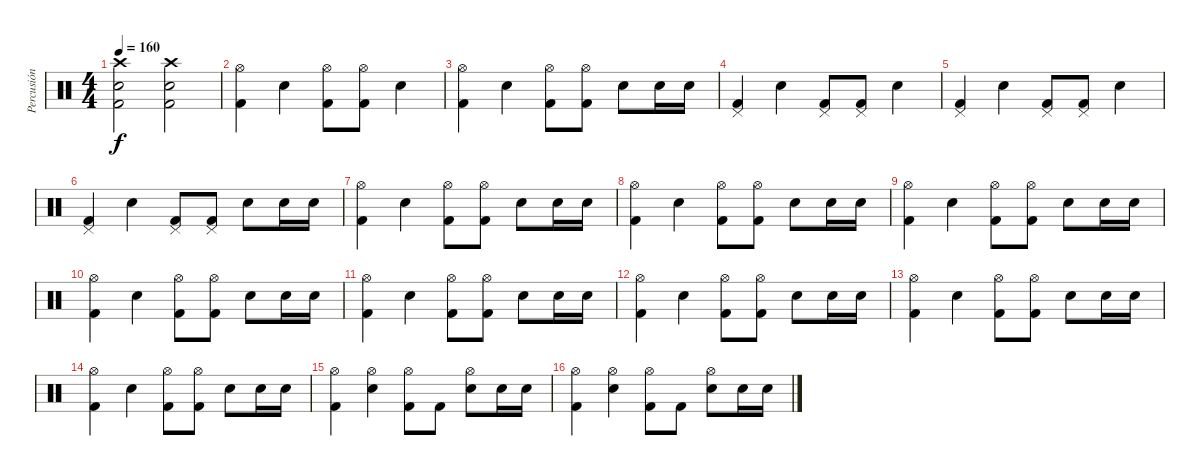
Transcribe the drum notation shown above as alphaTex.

\track ("Percusión" "Percusión") {instrument percussion}
\staff {score}
\articulation defaults
\ts (4 4)
\tempo 160
\clef neutral
\ks c
("Crash high (hit)" "Snare (hit) 2" "Kick (hit) 2").2{dy f} ("Crash high (hit)" "Snare (hit) 2" "Kick (hit) 2").2 |
("Hi-Hat (open)" "Kick (hit) 2").4 "Electric Snare (hit)".4 ("Hi-Hat (open)" "Kick (hit) 2").8 ("Hi-Hat (open)" "Kick (hit) 2").8 "Electric Snare (hit)".4 |
("Hi-Hat (open)" "Kick (hit) 2").4 "Electric Snare (hit)".4 ("Hi-Hat (open)" "Kick (hit) 2").8 ("Hi-Hat (open)" "Kick (hit) 2").8 "Electric Snare (hit)".8 "Electric Snare (hit)".16 "Electric Snare (hit)".16 |
("Pedal Hi-Hat (hit)" "Kick (hit) 2").4 "Electric Snare (hit)".4 ("Pedal Hi-Hat (hit)" "Kick (hit) 2").8 ("Pedal Hi-Hat (hit)" "Kick (hit) 2").8 "Electric Snare (hit)".4 |
("Pedal Hi-Hat (hit)" "Kick (hit) 2").4 "Electric Snare (hit)".4 ("Pedal Hi-Hat (hit)" "Kick (hit) 2").8 ("Pedal Hi-Hat (hit)" "Kick (hit) 2").8 "Electric Snare (hit)".4 |
("Pedal Hi-Hat (hit)" "Kick (hit) 2").4 "Electric Snare (hit)".4 ("Pedal Hi-Hat (hit)" "Kick (hit) 2").8 ("Pedal Hi-Hat (hit)" "Kick (hit) 2").8 "Electric Snare (hit)".8 "Electric Snare (hit)".16 "Electric Snare (hit)".16 |
("Hi-Hat (open)" "Kick (hit) 2").4 "Electric Snare (hit)".4 ("Hi-Hat (open)" "Kick (hit) 2").8 ("Hi-Hat (open)" "Kick (hit) 2").8 "Electric Snare (hit)".8 "Electric Snare (hit)".16 "Electric Snare (hit)".16 |
("Hi-Hat (open)" "Kick (hit) 2").4 "Electric Snare (hit)".4 ("Hi-Hat (open)" "Kick (hit) 2").8 ("Hi-Hat (open)" "Kick (hit) 2").8 "Electric Snare (hit)".8 "Electric Snare (hit)".16 "Electric Snare (hit)".16 |
("Hi-Hat (open)" "Kick (hit) 2").4 "Electric Snare (hit)".4 ("Hi-Hat (open)" "Kick (hit) 2").8 ("Hi-Hat (open)" "Kick (hit) 2").8 "Electric Snare (hit)".8 "Electric Snare (hit)".16 "Electric Snare (hit)".16 |
("Hi-Hat (open)" "Kick (hit) 2").4 "Electric Snare (hit)".4 ("Hi-Hat (open)" "Kick (hit) 2").8 ("Hi-Hat (open)" "Kick (hit) 2").8 "Electric Snare (hit)".8 "Electric Snare (hit)".16 "Electric Snare (hit)".16 |
("Hi-Hat (open)" "Kick (hit) 2").4 "Electric Snare (hit)".4 ("Hi-Hat (open)" "Kick (hit) 2").8 ("Hi-Hat (open)" "Kick (hit) 2").8 "Electric Snare (hit)".8 "Electric Snare (hit)".16 "Electric Snare (hit)".16 |
("Hi-Hat (open)" "Kick (hit) 2").4 "Electric Snare (hit)".4 ("Hi-Hat (open)" "Kick (hit) 2").8 ("Hi-Hat (open)" "Kick (hit) 2").8 "Electric Snare (hit)".8 "Electric Snare (hit)".16 "Electric Snare (hit)".16 |
("Hi-Hat (open)" "Kick (hit) 2").4 "Electric Snare (hit)".4 ("Hi-Hat (open)" "Kick (hit) 2").8 ("Hi-Hat (open)" "Kick (hit) 2").8 "Electric Snare (hit)".8 "Electric Snare (hit)".16 "Electric Snare (hit)".16 |
("Hi-Hat (open)" "Kick (hit) 2").4 "Electric Snare (hit)".4 ("Hi-Hat (open)" "Kick (hit) 2").8 ("Hi-Hat (open)" "Kick (hit) 2").8 "Electric Snare (hit)".8 "Electric Snare (hit)".16 "Electric Snare (hit)".16 |
("Hi-Hat (open)" "Kick (hit) 2").4 ("Hi-Hat (open)" "Electric Snare (hit)").4 ("Hi-Hat (open)" "Kick (hit) 2").8 "Kick (hit) 2".8 ("Hi-Hat (open)" "Electric Snare (hit)").8 "Electric Snare (hit)".16 "Electric Snare (hit)".16 |
("Hi-Hat (open)" "Kick (hit) 2").4 ("Hi-Hat (open)" "Electric Snare (hit)").4 ("Hi-Hat (open)" "Kick (hit) 2").8 "Kick (hit) 2".8 ("Hi-Hat (open)" "Electric Snare (hit)").8 "Electric Snare (hit)".16 "Electric Snare (hit)".16
